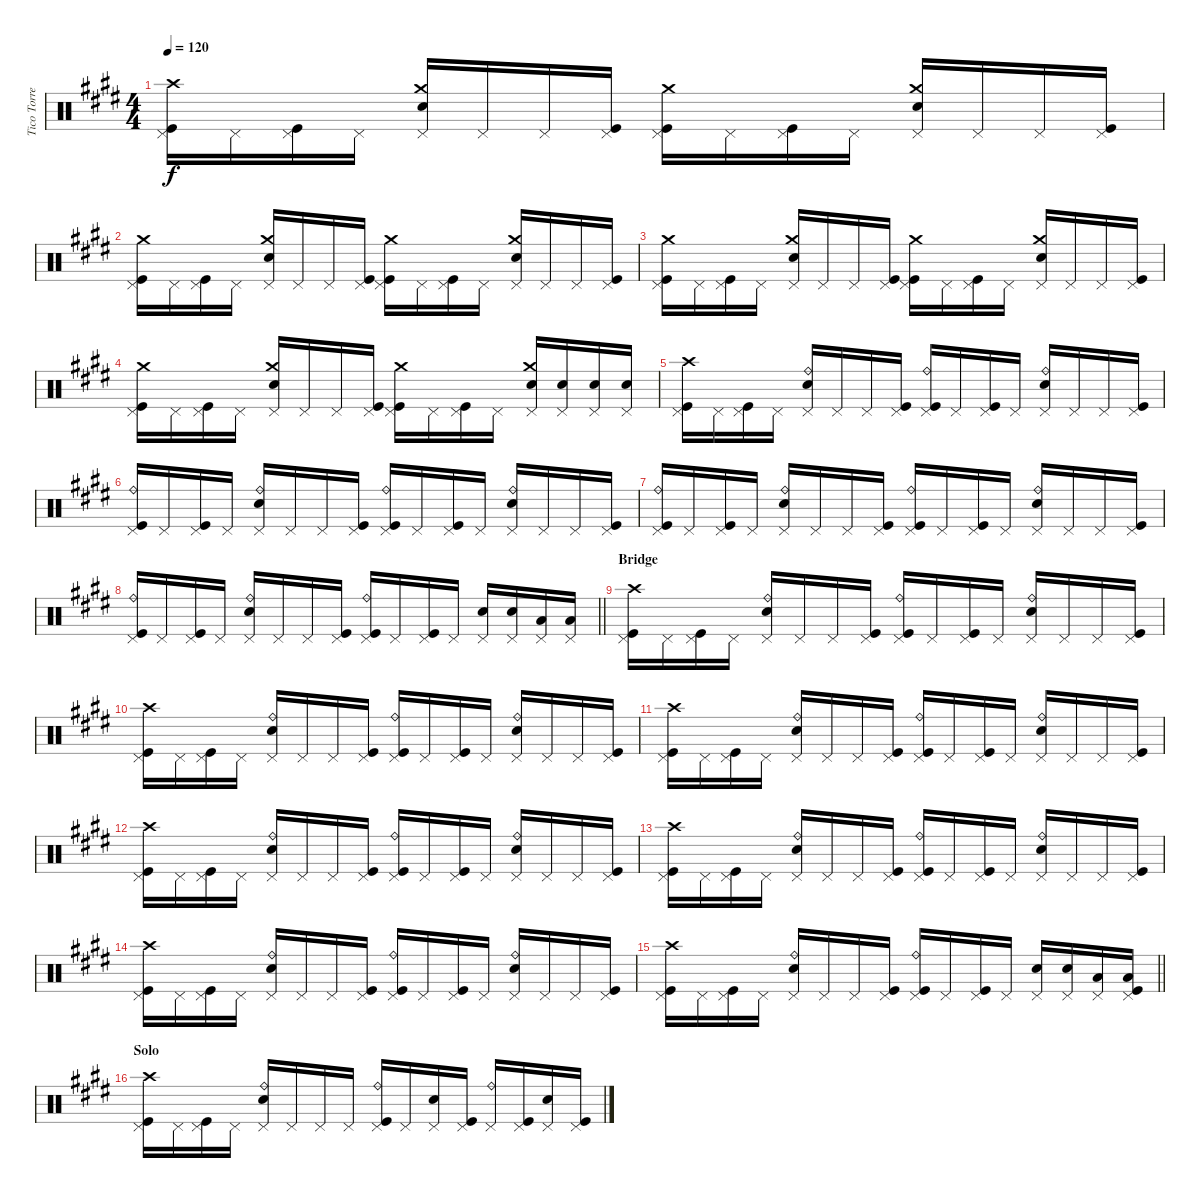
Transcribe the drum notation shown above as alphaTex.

\track ("Tico Torres (Drums)" "Tico Torre") {instrument percussion}
\staff {score}
\articulation defaults
\ts (4 4)
\tempo 120
\clef neutral
\ks c#minor
("Crash high (hit)" "Pedal Hi-Hat (hit)" "Kick (hit)").16{dy f} "Pedal Hi-Hat (hit)".16 ("Pedal Hi-Hat (hit)" "Kick (hit)").16 "Pedal Hi-Hat (hit)".16 ("Crash medium (hit)" "Electric Snare (hit)" "Pedal Hi-Hat (hit)").16 "Pedal Hi-Hat (hit)".16 "Pedal Hi-Hat (hit)".16 ("Pedal Hi-Hat (hit)" "Kick (hit)").16 ("Crash medium (hit)" "Pedal Hi-Hat (hit)" "Kick (hit)").16 "Pedal Hi-Hat (hit)".16 ("Pedal Hi-Hat (hit)" "Kick (hit)").16 "Pedal Hi-Hat (hit)".16 ("Crash medium (hit)" "Electric Snare (hit)" "Pedal Hi-Hat (hit)").16 "Pedal Hi-Hat (hit)".16 "Pedal Hi-Hat (hit)".16 ("Pedal Hi-Hat (hit)" "Kick (hit)").16 |
("Crash medium (hit)" "Pedal Hi-Hat (hit)" "Kick (hit)").16 "Pedal Hi-Hat (hit)".16 ("Pedal Hi-Hat (hit)" "Kick (hit)").16 "Pedal Hi-Hat (hit)".16 ("Crash medium (hit)" "Electric Snare (hit)" "Pedal Hi-Hat (hit)").16 "Pedal Hi-Hat (hit)".16 "Pedal Hi-Hat (hit)".16 ("Pedal Hi-Hat (hit)" "Kick (hit)").16 ("Crash medium (hit)" "Pedal Hi-Hat (hit)" "Kick (hit)").16 "Pedal Hi-Hat (hit)".16 ("Pedal Hi-Hat (hit)" "Kick (hit)").16 "Pedal Hi-Hat (hit)".16 ("Crash medium (hit)" "Electric Snare (hit)" "Pedal Hi-Hat (hit)").16 "Pedal Hi-Hat (hit)".16 "Pedal Hi-Hat (hit)".16 ("Pedal Hi-Hat (hit)" "Kick (hit)").16 |
("Crash medium (hit)" "Pedal Hi-Hat (hit)" "Kick (hit)").16 "Pedal Hi-Hat (hit)".16 ("Pedal Hi-Hat (hit)" "Kick (hit)").16 "Pedal Hi-Hat (hit)".16 ("Crash medium (hit)" "Electric Snare (hit)" "Pedal Hi-Hat (hit)").16 "Pedal Hi-Hat (hit)".16 "Pedal Hi-Hat (hit)".16 ("Pedal Hi-Hat (hit)" "Kick (hit)").16 ("Crash medium (hit)" "Pedal Hi-Hat (hit)" "Kick (hit)").16 "Pedal Hi-Hat (hit)".16 ("Pedal Hi-Hat (hit)" "Kick (hit)").16 "Pedal Hi-Hat (hit)".16 ("Crash medium (hit)" "Electric Snare (hit)" "Pedal Hi-Hat (hit)").16 "Pedal Hi-Hat (hit)".16 "Pedal Hi-Hat (hit)".16 ("Pedal Hi-Hat (hit)" "Kick (hit)").16 |
("Crash medium (hit)" "Pedal Hi-Hat (hit)" "Kick (hit)").16 "Pedal Hi-Hat (hit)".16 ("Pedal Hi-Hat (hit)" "Kick (hit)").16 "Pedal Hi-Hat (hit)".16 ("Crash medium (hit)" "Electric Snare (hit)" "Pedal Hi-Hat (hit)").16 "Pedal Hi-Hat (hit)".16 "Pedal Hi-Hat (hit)".16 ("Pedal Hi-Hat (hit)" "Kick (hit)").16 ("Crash medium (hit)" "Pedal Hi-Hat (hit)" "Kick (hit)").16 "Pedal Hi-Hat (hit)".16 ("Pedal Hi-Hat (hit)" "Kick (hit)").16 "Pedal Hi-Hat (hit)".16 ("Crash medium (hit)" "Electric Snare (hit)" "Pedal Hi-Hat (hit)").16 ("Electric Snare (hit)" "Pedal Hi-Hat (hit)").16 ("Electric Snare (hit)" "Pedal Hi-Hat (hit)").16 ("Electric Snare (hit)" "Pedal Hi-Hat (hit)").16 |
("Crash high (hit)" "Pedal Hi-Hat (hit)" "Kick (hit)").16 "Pedal Hi-Hat (hit)".16 ("Pedal Hi-Hat (hit)" "Kick (hit)").16 "Pedal Hi-Hat (hit)".16 ("Ride (bell)" "Electric Snare (hit)" "Pedal Hi-Hat (hit)").16 "Pedal Hi-Hat (hit)".16 "Pedal Hi-Hat (hit)".16 ("Pedal Hi-Hat (hit)" "Kick (hit)").16 ("Ride (bell)" "Pedal Hi-Hat (hit)" "Kick (hit)").16 "Pedal Hi-Hat (hit)".16 ("Pedal Hi-Hat (hit)" "Kick (hit)").16 "Pedal Hi-Hat (hit)".16 ("Ride (bell)" "Electric Snare (hit)" "Pedal Hi-Hat (hit)").16 "Pedal Hi-Hat (hit)".16 "Pedal Hi-Hat (hit)".16 ("Pedal Hi-Hat (hit)" "Kick (hit)").16 |
("Ride (bell)" "Pedal Hi-Hat (hit)" "Kick (hit)").16 "Pedal Hi-Hat (hit)".16 ("Pedal Hi-Hat (hit)" "Kick (hit)").16 "Pedal Hi-Hat (hit)".16 ("Ride (bell)" "Electric Snare (hit)" "Pedal Hi-Hat (hit)").16 "Pedal Hi-Hat (hit)".16 "Pedal Hi-Hat (hit)".16 ("Pedal Hi-Hat (hit)" "Kick (hit)").16 ("Ride (bell)" "Pedal Hi-Hat (hit)" "Kick (hit)").16 "Pedal Hi-Hat (hit)".16 ("Pedal Hi-Hat (hit)" "Kick (hit)").16 "Pedal Hi-Hat (hit)".16 ("Ride (bell)" "Electric Snare (hit)" "Pedal Hi-Hat (hit)").16 "Pedal Hi-Hat (hit)".16 "Pedal Hi-Hat (hit)".16 ("Pedal Hi-Hat (hit)" "Kick (hit)").16 |
("Ride (bell)" "Pedal Hi-Hat (hit)" "Kick (hit)").16 "Pedal Hi-Hat (hit)".16 ("Pedal Hi-Hat (hit)" "Kick (hit)").16 "Pedal Hi-Hat (hit)".16 ("Ride (bell)" "Electric Snare (hit)" "Pedal Hi-Hat (hit)").16 "Pedal Hi-Hat (hit)".16 "Pedal Hi-Hat (hit)".16 ("Pedal Hi-Hat (hit)" "Kick (hit)").16 ("Ride (bell)" "Pedal Hi-Hat (hit)" "Kick (hit)").16 "Pedal Hi-Hat (hit)".16 ("Pedal Hi-Hat (hit)" "Kick (hit)").16 "Pedal Hi-Hat (hit)".16 ("Ride (bell)" "Electric Snare (hit)" "Pedal Hi-Hat (hit)").16 "Pedal Hi-Hat (hit)".16 "Pedal Hi-Hat (hit)".16 ("Pedal Hi-Hat (hit)" "Kick (hit)").16 |
\barLineRight lightlight
("Ride (bell)" "Pedal Hi-Hat (hit)" "Kick (hit)").16 "Pedal Hi-Hat (hit)".16 ("Pedal Hi-Hat (hit)" "Kick (hit)").16 "Pedal Hi-Hat (hit)".16 ("Ride (bell)" "Electric Snare (hit)" "Pedal Hi-Hat (hit)").16 "Pedal Hi-Hat (hit)".16 "Pedal Hi-Hat (hit)".16 ("Pedal Hi-Hat (hit)" "Kick (hit)").16 ("Ride (bell)" "Pedal Hi-Hat (hit)" "Kick (hit)").16 "Pedal Hi-Hat (hit)".16 ("Pedal Hi-Hat (hit)" "Kick (hit)").16 "Pedal Hi-Hat (hit)".16 ("Electric Snare (hit)" "Pedal Hi-Hat (hit)").16 ("Electric Snare (hit)" "Pedal Hi-Hat (hit)").16 ("Low Tom (hit)" "Pedal Hi-Hat (hit)").16 ("Low Tom (hit)" "Pedal Hi-Hat (hit)").16 |
\section ("" "Bridge")
("Crash high (hit)" "Pedal Hi-Hat (hit)" "Kick (hit)").16 "Pedal Hi-Hat (hit)".16 ("Pedal Hi-Hat (hit)" "Kick (hit)").16 "Pedal Hi-Hat (hit)".16 ("Ride (bell)" "Electric Snare (hit)" "Pedal Hi-Hat (hit)").16 "Pedal Hi-Hat (hit)".16 "Pedal Hi-Hat (hit)".16 ("Pedal Hi-Hat (hit)" "Kick (hit)").16 ("Ride (bell)" "Pedal Hi-Hat (hit)" "Kick (hit)").16 "Pedal Hi-Hat (hit)".16 ("Pedal Hi-Hat (hit)" "Kick (hit)").16 "Pedal Hi-Hat (hit)".16 ("Ride (bell)" "Electric Snare (hit)" "Pedal Hi-Hat (hit)").16 "Pedal Hi-Hat (hit)".16 "Pedal Hi-Hat (hit)".16 ("Pedal Hi-Hat (hit)" "Kick (hit)").16 |
("Crash high (hit)" "Pedal Hi-Hat (hit)" "Kick (hit)").16 "Pedal Hi-Hat (hit)".16 ("Pedal Hi-Hat (hit)" "Kick (hit)").16 "Pedal Hi-Hat (hit)".16 ("Ride (bell)" "Electric Snare (hit)" "Pedal Hi-Hat (hit)").16 "Pedal Hi-Hat (hit)".16 "Pedal Hi-Hat (hit)".16 ("Pedal Hi-Hat (hit)" "Kick (hit)").16 ("Ride (bell)" "Pedal Hi-Hat (hit)" "Kick (hit)").16 "Pedal Hi-Hat (hit)".16 ("Pedal Hi-Hat (hit)" "Kick (hit)").16 "Pedal Hi-Hat (hit)".16 ("Ride (bell)" "Electric Snare (hit)" "Pedal Hi-Hat (hit)").16 "Pedal Hi-Hat (hit)".16 "Pedal Hi-Hat (hit)".16 ("Pedal Hi-Hat (hit)" "Kick (hit)").16 |
("Crash high (hit)" "Pedal Hi-Hat (hit)" "Kick (hit)").16 "Pedal Hi-Hat (hit)".16 ("Pedal Hi-Hat (hit)" "Kick (hit)").16 "Pedal Hi-Hat (hit)".16 ("Ride (bell)" "Electric Snare (hit)" "Pedal Hi-Hat (hit)").16 "Pedal Hi-Hat (hit)".16 "Pedal Hi-Hat (hit)".16 ("Pedal Hi-Hat (hit)" "Kick (hit)").16 ("Ride (bell)" "Pedal Hi-Hat (hit)" "Kick (hit)").16 "Pedal Hi-Hat (hit)".16 ("Pedal Hi-Hat (hit)" "Kick (hit)").16 "Pedal Hi-Hat (hit)".16 ("Ride (bell)" "Electric Snare (hit)" "Pedal Hi-Hat (hit)").16 "Pedal Hi-Hat (hit)".16 "Pedal Hi-Hat (hit)".16 ("Pedal Hi-Hat (hit)" "Kick (hit)").16 |
("Crash high (hit)" "Pedal Hi-Hat (hit)" "Kick (hit)").16 "Pedal Hi-Hat (hit)".16 ("Pedal Hi-Hat (hit)" "Kick (hit)").16 "Pedal Hi-Hat (hit)".16 ("Ride (bell)" "Electric Snare (hit)" "Pedal Hi-Hat (hit)").16 "Pedal Hi-Hat (hit)".16 "Pedal Hi-Hat (hit)".16 ("Pedal Hi-Hat (hit)" "Kick (hit)").16 ("Ride (bell)" "Pedal Hi-Hat (hit)" "Kick (hit)").16 "Pedal Hi-Hat (hit)".16 ("Pedal Hi-Hat (hit)" "Kick (hit)").16 "Pedal Hi-Hat (hit)".16 ("Ride (bell)" "Electric Snare (hit)" "Pedal Hi-Hat (hit)").16 "Pedal Hi-Hat (hit)".16 "Pedal Hi-Hat (hit)".16 ("Pedal Hi-Hat (hit)" "Kick (hit)").16 |
("Crash high (hit)" "Pedal Hi-Hat (hit)" "Kick (hit)").16 "Pedal Hi-Hat (hit)".16 ("Pedal Hi-Hat (hit)" "Kick (hit)").16 "Pedal Hi-Hat (hit)".16 ("Ride (bell)" "Electric Snare (hit)" "Pedal Hi-Hat (hit)").16 "Pedal Hi-Hat (hit)".16 "Pedal Hi-Hat (hit)".16 ("Pedal Hi-Hat (hit)" "Kick (hit)").16 ("Ride (bell)" "Pedal Hi-Hat (hit)" "Kick (hit)").16 "Pedal Hi-Hat (hit)".16 ("Pedal Hi-Hat (hit)" "Kick (hit)").16 "Pedal Hi-Hat (hit)".16 ("Ride (bell)" "Electric Snare (hit)" "Pedal Hi-Hat (hit)").16 "Pedal Hi-Hat (hit)".16 "Pedal Hi-Hat (hit)".16 ("Pedal Hi-Hat (hit)" "Kick (hit)").16 |
("Crash high (hit)" "Pedal Hi-Hat (hit)" "Kick (hit)").16 "Pedal Hi-Hat (hit)".16 ("Pedal Hi-Hat (hit)" "Kick (hit)").16 "Pedal Hi-Hat (hit)".16 ("Ride (bell)" "Electric Snare (hit)" "Pedal Hi-Hat (hit)").16 "Pedal Hi-Hat (hit)".16 "Pedal Hi-Hat (hit)".16 ("Pedal Hi-Hat (hit)" "Kick (hit)").16 ("Ride (bell)" "Pedal Hi-Hat (hit)" "Kick (hit)").16 "Pedal Hi-Hat (hit)".16 ("Pedal Hi-Hat (hit)" "Kick (hit)").16 "Pedal Hi-Hat (hit)".16 ("Ride (bell)" "Electric Snare (hit)" "Pedal Hi-Hat (hit)").16 "Pedal Hi-Hat (hit)".16 "Pedal Hi-Hat (hit)".16 ("Pedal Hi-Hat (hit)" "Kick (hit)").16 |
\barLineRight lightlight
("Crash high (hit)" "Pedal Hi-Hat (hit)" "Kick (hit)").16 "Pedal Hi-Hat (hit)".16 ("Pedal Hi-Hat (hit)" "Kick (hit)").16 "Pedal Hi-Hat (hit)".16 ("Ride (bell)" "Electric Snare (hit)" "Pedal Hi-Hat (hit)").16 "Pedal Hi-Hat (hit)".16 "Pedal Hi-Hat (hit)".16 ("Pedal Hi-Hat (hit)" "Kick (hit)").16 ("Ride (bell)" "Pedal Hi-Hat (hit)" "Kick (hit)").16 "Pedal Hi-Hat (hit)".16 ("Pedal Hi-Hat (hit)" "Kick (hit)").16 "Pedal Hi-Hat (hit)".16 ("Electric Snare (hit)" "Pedal Hi-Hat (hit)").16 ("Electric Snare (hit)" "Pedal Hi-Hat (hit)").16 ("Low Tom (hit)" "Pedal Hi-Hat (hit)").16 ("Low Tom (hit)" "Pedal Hi-Hat (hit)" "Kick (hit)").16 |
\section ("" "Solo")
("Crash high (hit)" "Pedal Hi-Hat (hit)" "Kick (hit)").16 "Pedal Hi-Hat (hit)".16 ("Pedal Hi-Hat (hit)" "Kick (hit)").16 "Pedal Hi-Hat (hit)".16 ("Ride (bell)" "Electric Snare (hit)" "Pedal Hi-Hat (hit)").16 "Pedal Hi-Hat (hit)".16 "Pedal Hi-Hat (hit)".16 "Pedal Hi-Hat (hit)".16 ("Ride (bell)" "Pedal Hi-Hat (hit)" "Kick (hit)").16 "Pedal Hi-Hat (hit)".16 ("Electric Snare (hit)" "Pedal Hi-Hat (hit)").16 ("Pedal Hi-Hat (hit)" "Kick (hit)").16 ("Ride (bell)" "Pedal Hi-Hat (hit)").16 ("Pedal Hi-Hat (hit)" "Kick (hit)").16 ("Electric Snare (hit)" "Pedal Hi-Hat (hit)").16 ("Pedal Hi-Hat (hit)" "Kick (hit)").16
